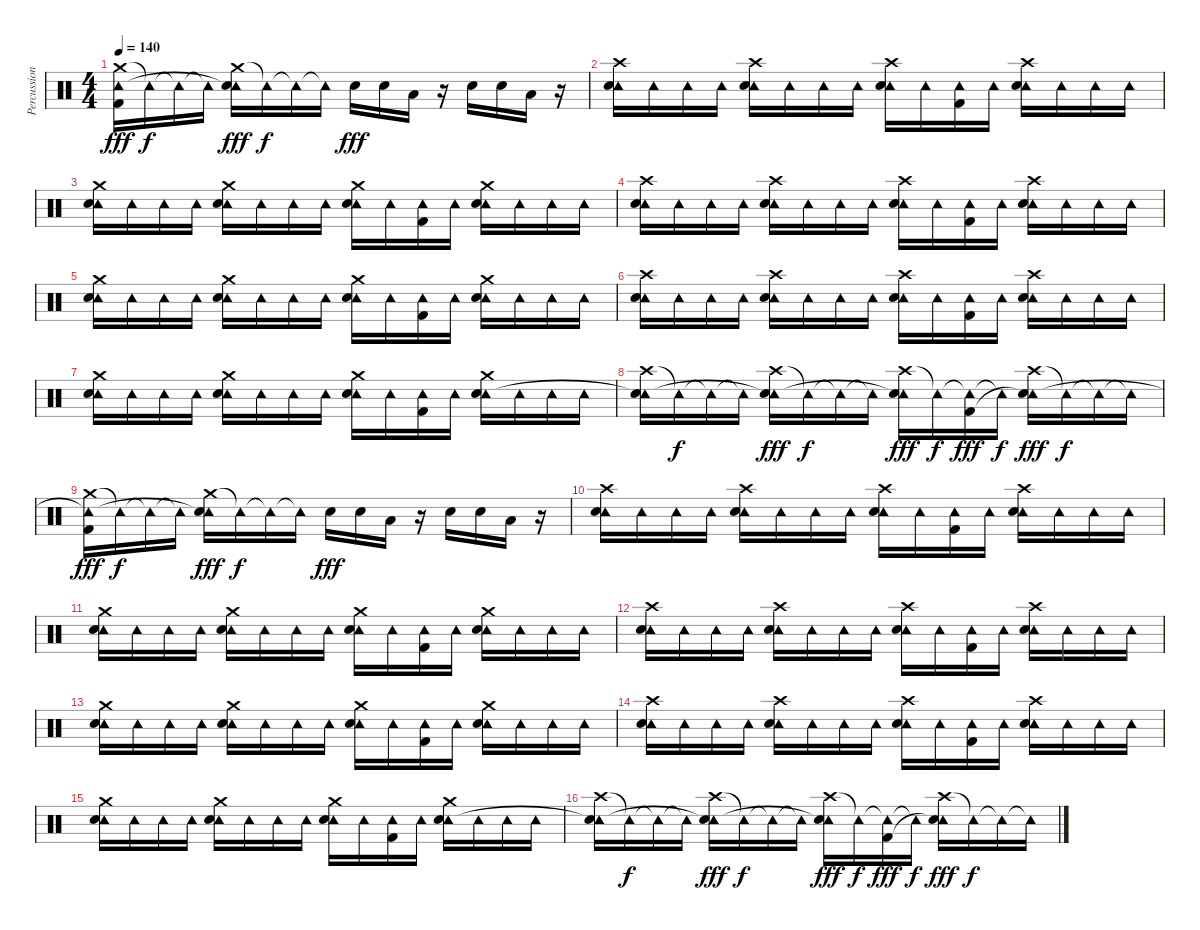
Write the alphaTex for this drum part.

\track ("Percussion" "Percussion") {instrument percussion}
\staff {score}
\articulation defaults
\ts (4 4)
\tempo 140
\clef neutral
\ks c
("Crash medium (hit)" "Tambourine (hit)"{t} "Kick (hit) 2").16{dy fff} "Tambourine (hit)"{t}.16{dy f} "Tambourine (hit)"{t}.16 "Tambourine (hit)"{t}.16 ("Crash medium (hit)" "Tambourine (hit)"{t} "Electric Snare (hit)").16{dy fff} "Tambourine (hit)"{t}.16{dy f} "Tambourine (hit)"{t}.16 "Tambourine (hit)"{t}.16 "Electric Snare (hit)".16{dy fff} "Electric Snare (hit)".16 "Low Floor Tom (hit)".16 r.16 "Electric Snare (hit)".16 "Electric Snare (hit)".16 "Low Floor Tom (hit)".16 r.16 |
("Crash high (hit)" "Tambourine (hit)" "Electric Snare (hit)").16 "Tambourine (hit)".16 "Tambourine (hit)".16 "Tambourine (hit)".16 ("Crash high (hit)" "Tambourine (hit)" "Electric Snare (hit)").16 "Tambourine (hit)".16 "Tambourine (hit)".16 "Tambourine (hit)".16 ("Crash high (hit)" "Tambourine (hit)" "Electric Snare (hit)").16 "Tambourine (hit)".16 ("Tambourine (hit)" "Kick (hit) 2").16 "Tambourine (hit)".16 ("Crash high (hit)" "Tambourine (hit)" "Electric Snare (hit)").16 "Tambourine (hit)".16 "Tambourine (hit)".16 "Tambourine (hit)".16 |
("Crash medium (hit)" "Tambourine (hit)" "Electric Snare (hit)").16 "Tambourine (hit)".16 "Tambourine (hit)".16 "Tambourine (hit)".16 ("Crash medium (hit)" "Tambourine (hit)" "Electric Snare (hit)").16 "Tambourine (hit)".16 "Tambourine (hit)".16 "Tambourine (hit)".16 ("Crash medium (hit)" "Tambourine (hit)" "Electric Snare (hit)").16 "Tambourine (hit)".16 ("Tambourine (hit)" "Kick (hit) 2").16 "Tambourine (hit)".16 ("Crash medium (hit)" "Tambourine (hit)" "Electric Snare (hit)").16 "Tambourine (hit)".16 "Tambourine (hit)".16 "Tambourine (hit)".16 |
("Crash high (hit)" "Tambourine (hit)" "Electric Snare (hit)").16 "Tambourine (hit)".16 "Tambourine (hit)".16 "Tambourine (hit)".16 ("Crash high (hit)" "Tambourine (hit)" "Electric Snare (hit)").16 "Tambourine (hit)".16 "Tambourine (hit)".16 "Tambourine (hit)".16 ("Crash high (hit)" "Tambourine (hit)" "Electric Snare (hit)").16 "Tambourine (hit)".16 ("Tambourine (hit)" "Kick (hit) 2").16 "Tambourine (hit)".16 ("Crash high (hit)" "Tambourine (hit)" "Electric Snare (hit)").16 "Tambourine (hit)".16 "Tambourine (hit)".16 "Tambourine (hit)".16 |
("Crash medium (hit)" "Tambourine (hit)" "Electric Snare (hit)").16 "Tambourine (hit)".16 "Tambourine (hit)".16 "Tambourine (hit)".16 ("Crash medium (hit)" "Tambourine (hit)" "Electric Snare (hit)").16 "Tambourine (hit)".16 "Tambourine (hit)".16 "Tambourine (hit)".16 ("Crash medium (hit)" "Tambourine (hit)" "Electric Snare (hit)").16 "Tambourine (hit)".16 ("Tambourine (hit)" "Kick (hit) 2").16 "Tambourine (hit)".16 ("Crash medium (hit)" "Tambourine (hit)" "Electric Snare (hit)").16 "Tambourine (hit)".16 "Tambourine (hit)".16 "Tambourine (hit)".16 |
("Crash high (hit)" "Tambourine (hit)" "Electric Snare (hit)").16 "Tambourine (hit)".16 "Tambourine (hit)".16 "Tambourine (hit)".16 ("Crash high (hit)" "Tambourine (hit)" "Electric Snare (hit)").16 "Tambourine (hit)".16 "Tambourine (hit)".16 "Tambourine (hit)".16 ("Crash high (hit)" "Tambourine (hit)" "Electric Snare (hit)").16 "Tambourine (hit)".16 ("Tambourine (hit)" "Kick (hit) 2").16 "Tambourine (hit)".16 ("Crash high (hit)" "Tambourine (hit)" "Electric Snare (hit)").16 "Tambourine (hit)".16 "Tambourine (hit)".16 "Tambourine (hit)".16 |
("Crash medium (hit)" "Tambourine (hit)" "Electric Snare (hit)").16 "Tambourine (hit)".16 "Tambourine (hit)".16 "Tambourine (hit)".16 ("Crash medium (hit)" "Tambourine (hit)" "Electric Snare (hit)").16 "Tambourine (hit)".16 "Tambourine (hit)".16 "Tambourine (hit)".16 ("Crash medium (hit)" "Tambourine (hit)" "Electric Snare (hit)").16 "Tambourine (hit)".16 ("Tambourine (hit)" "Kick (hit) 2").16 "Tambourine (hit)".16 ("Crash medium (hit)" "Tambourine (hit)" "Electric Snare (hit)").16 "Tambourine (hit)".16 "Tambourine (hit)".16 "Tambourine (hit)".16 |
("Crash high (hit)" "Tambourine (hit)"{t} "Electric Snare (hit)").16 "Tambourine (hit)"{t}.16{dy f} "Tambourine (hit)"{t}.16 "Tambourine (hit)"{t}.16 ("Crash high (hit)" "Tambourine (hit)"{t} "Electric Snare (hit)").16{dy fff} "Tambourine (hit)"{t}.16{dy f} "Tambourine (hit)"{t}.16 "Tambourine (hit)"{t}.16 ("Crash high (hit)" "Tambourine (hit)"{t} "Electric Snare (hit)").16{dy fff} "Tambourine (hit)"{t}.16{dy f} ("Tambourine (hit)"{t} "Kick (hit) 2").16{dy fff} "Tambourine (hit)"{t}.16{dy f} ("Crash high (hit)" "Tambourine (hit)"{t} "Electric Snare (hit)").16{dy fff} "Tambourine (hit)"{t}.16{dy f} "Tambourine (hit)"{t}.16 "Tambourine (hit)"{t}.16 |
("Crash medium (hit)" "Tambourine (hit)"{t} "Kick (hit) 2").16{dy fff} "Tambourine (hit)"{t}.16{dy f} "Tambourine (hit)"{t}.16 "Tambourine (hit)"{t}.16 ("Crash medium (hit)" "Tambourine (hit)"{t} "Electric Snare (hit)").16{dy fff} "Tambourine (hit)"{t}.16{dy f} "Tambourine (hit)"{t}.16 "Tambourine (hit)"{t}.16 "Electric Snare (hit)".16{dy fff} "Electric Snare (hit)".16 "Low Floor Tom (hit)".16 r.16 "Electric Snare (hit)".16 "Electric Snare (hit)".16 "Low Floor Tom (hit)".16 r.16 |
("Crash high (hit)" "Tambourine (hit)" "Electric Snare (hit)").16 "Tambourine (hit)".16 "Tambourine (hit)".16 "Tambourine (hit)".16 ("Crash high (hit)" "Tambourine (hit)" "Electric Snare (hit)").16 "Tambourine (hit)".16 "Tambourine (hit)".16 "Tambourine (hit)".16 ("Crash high (hit)" "Tambourine (hit)" "Electric Snare (hit)").16 "Tambourine (hit)".16 ("Tambourine (hit)" "Kick (hit) 2").16 "Tambourine (hit)".16 ("Crash high (hit)" "Tambourine (hit)" "Electric Snare (hit)").16 "Tambourine (hit)".16 "Tambourine (hit)".16 "Tambourine (hit)".16 |
("Crash medium (hit)" "Tambourine (hit)" "Electric Snare (hit)").16 "Tambourine (hit)".16 "Tambourine (hit)".16 "Tambourine (hit)".16 ("Crash medium (hit)" "Tambourine (hit)" "Electric Snare (hit)").16 "Tambourine (hit)".16 "Tambourine (hit)".16 "Tambourine (hit)".16 ("Crash medium (hit)" "Tambourine (hit)" "Electric Snare (hit)").16 "Tambourine (hit)".16 ("Tambourine (hit)" "Kick (hit) 2").16 "Tambourine (hit)".16 ("Crash medium (hit)" "Tambourine (hit)" "Electric Snare (hit)").16 "Tambourine (hit)".16 "Tambourine (hit)".16 "Tambourine (hit)".16 |
("Crash high (hit)" "Tambourine (hit)" "Electric Snare (hit)").16 "Tambourine (hit)".16 "Tambourine (hit)".16 "Tambourine (hit)".16 ("Crash high (hit)" "Tambourine (hit)" "Electric Snare (hit)").16 "Tambourine (hit)".16 "Tambourine (hit)".16 "Tambourine (hit)".16 ("Crash high (hit)" "Tambourine (hit)" "Electric Snare (hit)").16 "Tambourine (hit)".16 ("Tambourine (hit)" "Kick (hit) 2").16 "Tambourine (hit)".16 ("Crash high (hit)" "Tambourine (hit)" "Electric Snare (hit)").16 "Tambourine (hit)".16 "Tambourine (hit)".16 "Tambourine (hit)".16 |
("Crash medium (hit)" "Tambourine (hit)" "Electric Snare (hit)").16 "Tambourine (hit)".16 "Tambourine (hit)".16 "Tambourine (hit)".16 ("Crash medium (hit)" "Tambourine (hit)" "Electric Snare (hit)").16 "Tambourine (hit)".16 "Tambourine (hit)".16 "Tambourine (hit)".16 ("Crash medium (hit)" "Tambourine (hit)" "Electric Snare (hit)").16 "Tambourine (hit)".16 ("Tambourine (hit)" "Kick (hit) 2").16 "Tambourine (hit)".16 ("Crash medium (hit)" "Tambourine (hit)" "Electric Snare (hit)").16 "Tambourine (hit)".16 "Tambourine (hit)".16 "Tambourine (hit)".16 |
("Crash high (hit)" "Tambourine (hit)" "Electric Snare (hit)").16 "Tambourine (hit)".16 "Tambourine (hit)".16 "Tambourine (hit)".16 ("Crash high (hit)" "Tambourine (hit)" "Electric Snare (hit)").16 "Tambourine (hit)".16 "Tambourine (hit)".16 "Tambourine (hit)".16 ("Crash high (hit)" "Tambourine (hit)" "Electric Snare (hit)").16 "Tambourine (hit)".16 ("Tambourine (hit)" "Kick (hit) 2").16 "Tambourine (hit)".16 ("Crash high (hit)" "Tambourine (hit)" "Electric Snare (hit)").16 "Tambourine (hit)".16 "Tambourine (hit)".16 "Tambourine (hit)".16 |
("Crash medium (hit)" "Tambourine (hit)" "Electric Snare (hit)").16 "Tambourine (hit)".16 "Tambourine (hit)".16 "Tambourine (hit)".16 ("Crash medium (hit)" "Tambourine (hit)" "Electric Snare (hit)").16 "Tambourine (hit)".16 "Tambourine (hit)".16 "Tambourine (hit)".16 ("Crash medium (hit)" "Tambourine (hit)" "Electric Snare (hit)").16 "Tambourine (hit)".16 ("Tambourine (hit)" "Kick (hit) 2").16 "Tambourine (hit)".16 ("Crash medium (hit)" "Tambourine (hit)" "Electric Snare (hit)").16 "Tambourine (hit)".16 "Tambourine (hit)".16 "Tambourine (hit)".16 |
("Crash high (hit)" "Tambourine (hit)"{t} "Electric Snare (hit)").16 "Tambourine (hit)"{t}.16{dy f} "Tambourine (hit)"{t}.16 "Tambourine (hit)"{t}.16 ("Crash high (hit)" "Tambourine (hit)"{t} "Electric Snare (hit)").16{dy fff} "Tambourine (hit)"{t}.16{dy f} "Tambourine (hit)"{t}.16 "Tambourine (hit)"{t}.16 ("Crash high (hit)" "Tambourine (hit)"{t} "Electric Snare (hit)").16{dy fff} "Tambourine (hit)"{t}.16{dy f} ("Tambourine (hit)"{t} "Kick (hit) 2").16{dy fff} "Tambourine (hit)"{t}.16{dy f} ("Crash high (hit)" "Tambourine (hit)"{t} "Electric Snare (hit)").16{dy fff} "Tambourine (hit)"{t}.16{dy f} "Tambourine (hit)"{t}.16 "Tambourine (hit)"{t}.16
